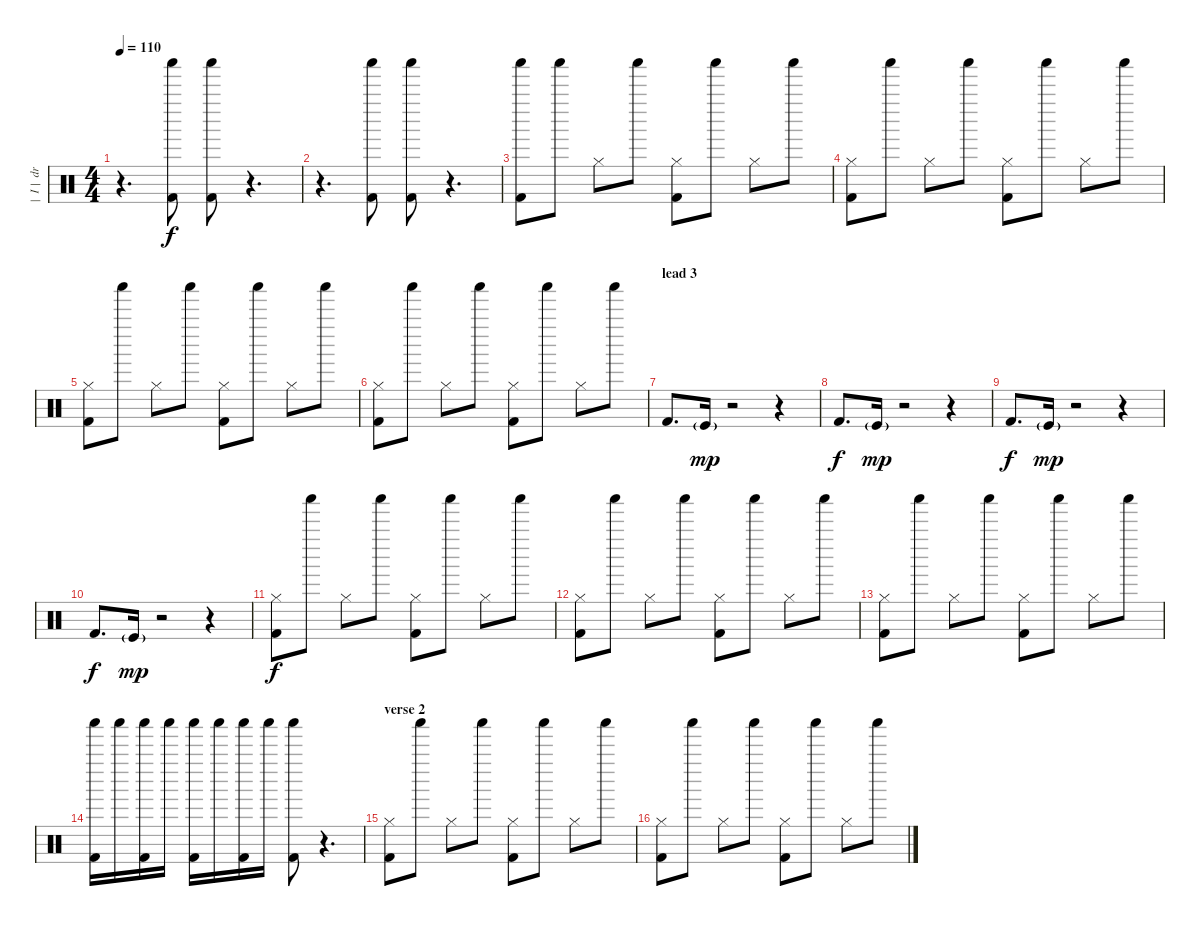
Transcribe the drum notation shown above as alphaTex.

\track ("|  I |  drum" "|  I |  dr") {instrument percussion}
\staff {score}
\articulation defaults
\ts (4 4)
\tempo 110
\clef neutral
\ks c
r.4{d dy f} ("Kick (hit) 2" "Shaker (hit)").8 ("Kick (hit) 2" "Shaker (hit)").8 r.4{d} |
r.4{d} ("Kick (hit) 2" "Shaker (hit)").8 ("Kick (hit) 2" "Shaker (hit)").8 r.4{d} |
("Kick (hit) 2" "Shaker (hit)").8 "Shaker (hit)".8 "Hi-Hat (closed)".8 "Shaker (hit)".8 ("Kick (hit) 2" "Hi-Hat (closed)").8 "Shaker (hit)".8 "Hi-Hat (closed)".8 "Shaker (hit)".8 |
("Kick (hit) 2" "Hi-Hat (closed)").8 "Shaker (hit)".8 "Hi-Hat (closed)".8 "Shaker (hit)".8 ("Kick (hit) 2" "Hi-Hat (closed)").8 "Shaker (hit)".8 "Hi-Hat (closed)".8 "Shaker (hit)".8 |
("Kick (hit) 2" "Hi-Hat (closed)").8 "Shaker (hit)".8 "Hi-Hat (closed)".8 "Shaker (hit)".8 ("Kick (hit) 2" "Hi-Hat (closed)").8 "Shaker (hit)".8 "Hi-Hat (closed)".8 "Shaker (hit)".8 |
("Kick (hit) 2" "Hi-Hat (closed)").8 "Shaker (hit)".8 "Hi-Hat (closed)".8 "Shaker (hit)".8 ("Kick (hit) 2" "Hi-Hat (closed)").8 "Shaker (hit)".8 "Hi-Hat (closed)".8 "Shaker (hit)".8 |
\section ("" "lead 3")
"Kick (hit) 2".8{d} "Kick (hit)"{g}.16{dy mp} r.2 r.4 |
"Kick (hit) 2".8{d dy f} "Kick (hit)"{g}.16{dy mp} r.2 r.4 |
"Kick (hit) 2".8{d dy f} "Kick (hit)"{g}.16{dy mp} r.2 r.4 |
"Kick (hit) 2".8{d dy f} "Kick (hit)"{g}.16{dy mp} r.2 r.4 |
("Kick (hit) 2" "Hi-Hat (closed)").8{dy f} "Shaker (hit)".8 "Hi-Hat (closed)".8 "Shaker (hit)".8 ("Kick (hit) 2" "Hi-Hat (closed)").8 "Shaker (hit)".8 "Hi-Hat (closed)".8 "Shaker (hit)".8 |
("Kick (hit) 2" "Hi-Hat (closed)").8 "Shaker (hit)".8 "Hi-Hat (closed)".8 "Shaker (hit)".8 ("Kick (hit) 2" "Hi-Hat (closed)").8 "Shaker (hit)".8 "Hi-Hat (closed)".8 "Shaker (hit)".8 |
("Kick (hit) 2" "Hi-Hat (closed)").8 "Shaker (hit)".8 "Hi-Hat (closed)".8 "Shaker (hit)".8 ("Kick (hit) 2" "Hi-Hat (closed)").8 "Shaker (hit)".8 "Hi-Hat (closed)".8 "Shaker (hit)".8 |
("Kick (hit) 2" "Shaker (hit)").16 "Shaker (hit)".16 ("Kick (hit) 2" "Shaker (hit)").16 "Shaker (hit)".16 ("Kick (hit) 2" "Shaker (hit)").16 "Shaker (hit)".16 ("Kick (hit) 2" "Shaker (hit)").16 "Shaker (hit)".16 ("Kick (hit) 2" "Shaker (hit)").8 r.4{d} |
\section ("" "verse 2")
("Kick (hit) 2" "Hi-Hat (closed)").8 "Shaker (hit)".8 "Hi-Hat (closed)".8 "Shaker (hit)".8 ("Kick (hit) 2" "Hi-Hat (closed)").8 "Shaker (hit)".8 "Hi-Hat (closed)".8 "Shaker (hit)".8 |
("Kick (hit) 2" "Hi-Hat (closed)").8 "Shaker (hit)".8 "Hi-Hat (closed)".8 "Shaker (hit)".8 ("Kick (hit) 2" "Hi-Hat (closed)").8 "Shaker (hit)".8 "Hi-Hat (closed)".8 "Shaker (hit)".8
